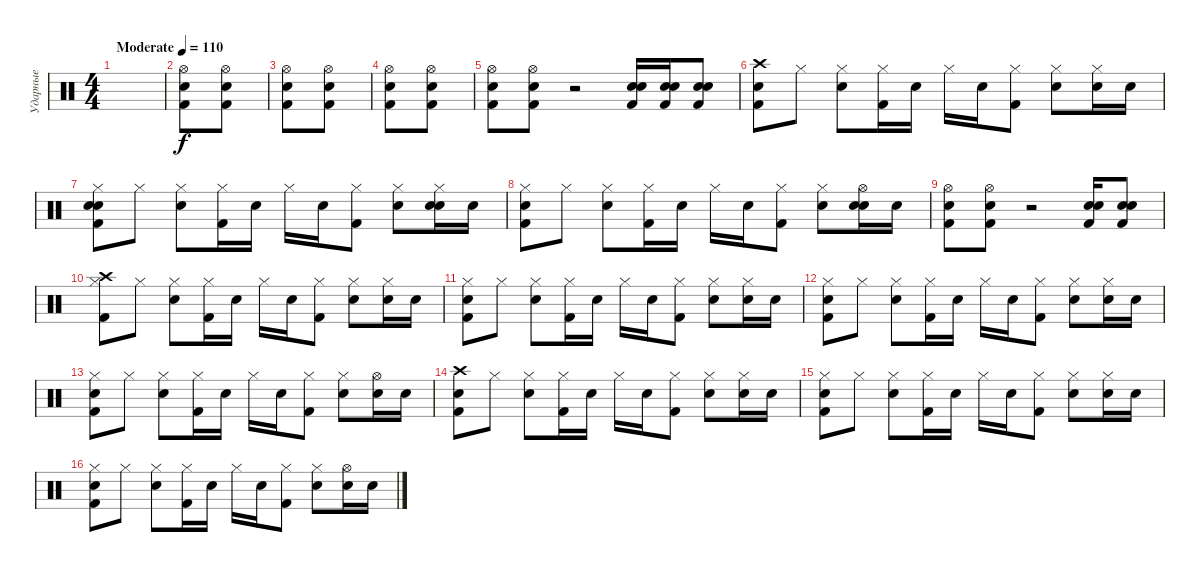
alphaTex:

\track ("Ударные" "Ударные") {instrument percussion}
\staff {score}
\articulation defaults
\ts (4 4)
\tempo (110 "Moderate")
\clef neutral
\ks c
|
("Kick (hit) 2" "Electric Snare (hit)" "Hi-Hat (open)").8 ("Kick (hit) 2" "Electric Snare (hit)" "Hi-Hat (open)").8 |
("Kick (hit) 2" "Electric Snare (hit)" "Hi-Hat (open)").8 ("Kick (hit) 2" "Electric Snare (hit)" "Hi-Hat (open)").8 |
("Kick (hit) 2" "Electric Snare (hit)" "Hi-Hat (open)").8 ("Kick (hit) 2" "Electric Snare (hit)" "Hi-Hat (open)").8 |
("Kick (hit) 2" "Electric Snare (hit)" "Hi-Hat (open)").8 ("Kick (hit) 2" "Electric Snare (hit)" "Hi-Hat (open)").8 r.2 ("Kick (hit) 2" "Electric Snare (hit)" "Snare (hit)").16 ("Kick (hit) 2" "Electric Snare (hit)" "Snare (hit)").16 ("Kick (hit) 2" "Electric Snare (hit)" "Snare (hit)").8 |
("Snare (hit)" "Crash high (hit)" "Kick (hit) 2").8 "Hi-Hat (closed)".8 ("Hi-Hat (closed)" "Electric Snare (hit)").8 ("Hi-Hat (closed)" "Kick (hit) 2").16 "Electric Snare (hit)".16 "Hi-Hat (closed)".16 "Electric Snare (hit)".16 ("Hi-Hat (closed)" "Kick (hit) 2").8 ("Hi-Hat (closed)" "Electric Snare (hit)").8 ("Hi-Hat (closed)" "Snare (hit)").16 "Snare (hit)".16 |
("Snare (hit)" "Snare (hit)" "Hi-Hat (closed)" "Kick (hit) 2").8 "Hi-Hat (closed)".8 ("Hi-Hat (closed)" "Electric Snare (hit)").8 ("Hi-Hat (closed)" "Kick (hit) 2").16 "Electric Snare (hit)".16 "Hi-Hat (closed)".16 "Electric Snare (hit)".16 ("Hi-Hat (closed)" "Kick (hit) 2").8 ("Hi-Hat (closed)" "Electric Snare (hit)").8 ("Hi-Hat (closed)" "Snare (hit)" "Snare (hit)").16 "Snare (hit)".16 |
("Hi-Hat (closed)" "Snare (hit)" "Kick (hit) 2").8 "Hi-Hat (closed)".8 ("Hi-Hat (closed)" "Electric Snare (hit)").8 ("Hi-Hat (closed)" "Kick (hit) 2").16 "Electric Snare (hit)".16 "Hi-Hat (closed)".16 "Electric Snare (hit)".16 ("Hi-Hat (closed)" "Kick (hit) 2").8 ("Hi-Hat (closed)" "Electric Snare (hit)").8 ("Snare (hit)" "Hi-Hat (open)" "Snare (hit)").16 "Snare (hit)".16 |
("Kick (hit) 2" "Electric Snare (hit)" "Hi-Hat (open)").8 ("Kick (hit) 2" "Electric Snare (hit)" "Hi-Hat (open)").8 r.2 ("Kick (hit) 2" "Electric Snare (hit)" "Snare (hit)").16 ("Kick (hit) 2" "Electric Snare (hit)" "Snare (hit)").8 |
("Hi-Hat (closed)" "Crash high (hit)" "Kick (hit) 2").8 "Hi-Hat (closed)".8 ("Hi-Hat (closed)" "Electric Snare (hit)").8 ("Hi-Hat (closed)" "Kick (hit) 2").16 "Electric Snare (hit)".16 "Hi-Hat (closed)".16 "Electric Snare (hit)".16 ("Hi-Hat (closed)" "Kick (hit) 2").8 ("Hi-Hat (closed)" "Electric Snare (hit)").8 ("Hi-Hat (closed)" "Snare (hit)").16 "Snare (hit)".16 |
("Hi-Hat (closed)" "Snare (hit)" "Kick (hit) 2").8 "Hi-Hat (closed)".8 ("Hi-Hat (closed)" "Electric Snare (hit)").8 ("Hi-Hat (closed)" "Kick (hit) 2").16 "Electric Snare (hit)".16 "Hi-Hat (closed)".16 "Electric Snare (hit)".16 ("Hi-Hat (closed)" "Kick (hit) 2").8 ("Hi-Hat (closed)" "Electric Snare (hit)").8 ("Hi-Hat (closed)" "Snare (hit)").16 "Snare (hit)".16 |
("Hi-Hat (closed)" "Snare (hit)" "Kick (hit) 2").8 "Hi-Hat (closed)".8 ("Hi-Hat (closed)" "Electric Snare (hit)").8 ("Hi-Hat (closed)" "Kick (hit) 2").16 "Electric Snare (hit)".16 "Hi-Hat (closed)".16 "Electric Snare (hit)".16 ("Hi-Hat (closed)" "Kick (hit) 2").8 ("Hi-Hat (closed)" "Electric Snare (hit)").8 ("Hi-Hat (closed)" "Snare (hit)").16 "Snare (hit)".16 |
("Hi-Hat (closed)" "Snare (hit)" "Kick (hit) 2").8 "Hi-Hat (closed)".8 ("Hi-Hat (closed)" "Electric Snare (hit)").8 ("Hi-Hat (closed)" "Kick (hit) 2").16 "Electric Snare (hit)".16 "Hi-Hat (closed)".16 "Electric Snare (hit)".16 ("Hi-Hat (closed)" "Kick (hit) 2").8 ("Hi-Hat (closed)" "Electric Snare (hit)").8 ("Hi-Hat (open)" "Snare (hit)").16 "Snare (hit)".16 |
("Crash high (hit)" "Snare (hit)" "Kick (hit) 2").8 "Hi-Hat (closed)".8 ("Hi-Hat (closed)" "Electric Snare (hit)").8 ("Hi-Hat (closed)" "Kick (hit) 2").16 "Electric Snare (hit)".16 "Hi-Hat (closed)".16 "Electric Snare (hit)".16 ("Hi-Hat (closed)" "Kick (hit) 2").8 ("Hi-Hat (closed)" "Electric Snare (hit)").8 ("Hi-Hat (closed)" "Snare (hit)").16 "Snare (hit)".16 |
("Hi-Hat (closed)" "Snare (hit)" "Kick (hit) 2").8 "Hi-Hat (closed)".8 ("Hi-Hat (closed)" "Electric Snare (hit)").8 ("Hi-Hat (closed)" "Kick (hit) 2").16 "Electric Snare (hit)".16 "Hi-Hat (closed)".16 "Electric Snare (hit)".16 ("Hi-Hat (closed)" "Kick (hit) 2").8 ("Hi-Hat (closed)" "Electric Snare (hit)").8 ("Hi-Hat (closed)" "Snare (hit)").16 "Snare (hit)".16 |
("Hi-Hat (closed)" "Snare (hit)" "Kick (hit) 2").8 "Hi-Hat (closed)".8 ("Hi-Hat (closed)" "Electric Snare (hit)").8 ("Hi-Hat (closed)" "Kick (hit) 2").16 "Electric Snare (hit)".16 "Hi-Hat (closed)".16 "Electric Snare (hit)".16 ("Hi-Hat (closed)" "Kick (hit) 2").8 ("Hi-Hat (closed)" "Electric Snare (hit)").8 ("Hi-Hat (open)" "Snare (hit)").16 "Snare (hit)".16
